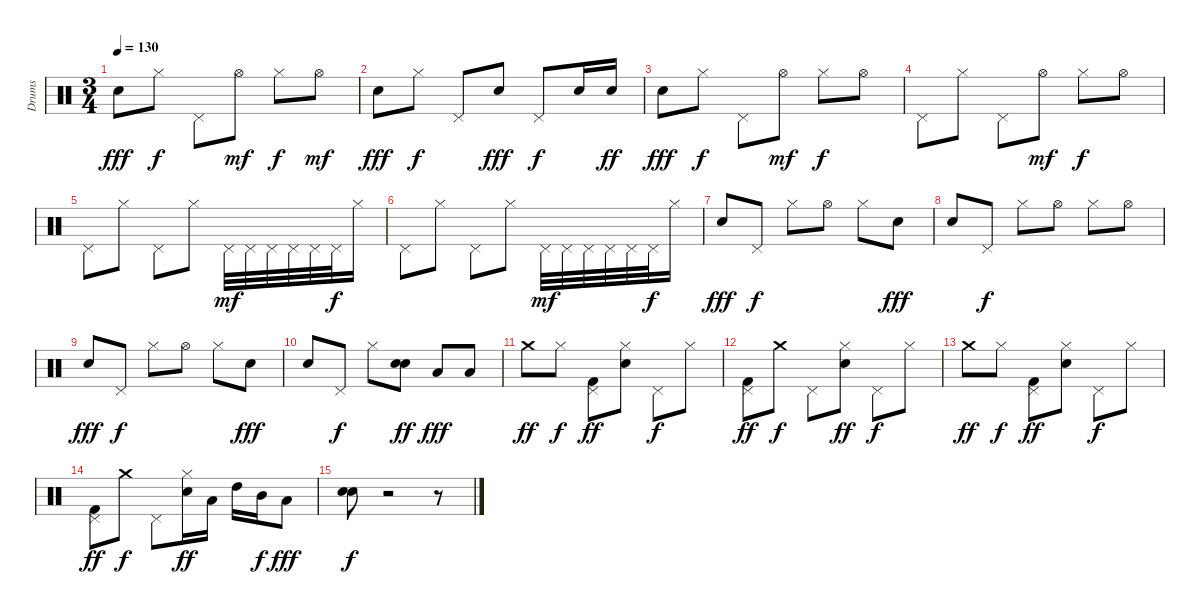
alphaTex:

\track ("Drums" "Drums") {instrument percussion}
\staff {score}
\articulation defaults
\ts (3 4)
\tempo 130
\clef neutral
\ks c "Electric Snare (hit)".8{dy fff} "Hi-Hat (closed)".8{dy f} "Pedal Hi-Hat (hit)".8 "Hi-Hat (open)".8{dy mf} "Hi-Hat (closed)".8{dy f} "Hi-Hat (open)".8{dy mf}
|
"Electric Snare (hit)".8{dy fff} "Hi-Hat (closed)".8{dy f} "Pedal Hi-Hat (hit)".8 "Electric Snare (hit)".8{dy fff} "Pedal Hi-Hat (hit)".8{dy f} "Electric Snare (hit)".16 "Electric Snare (hit)".16{dy ff} |
"Electric Snare (hit)".8{dy fff} "Hi-Hat (closed)".8{dy f} "Pedal Hi-Hat (hit)".8 "Hi-Hat (open)".8{dy mf} "Hi-Hat (closed)".8{dy f} "Hi-Hat (open)".8 |
"Pedal Hi-Hat (hit)".8 "Hi-Hat (closed)".8 "Pedal Hi-Hat (hit)".8 "Hi-Hat (open)".8{dy mf} "Hi-Hat (closed)".8{dy f} "Hi-Hat (open)".8 |
"Pedal Hi-Hat (hit)".8 "Hi-Hat (closed)".8 "Pedal Hi-Hat (hit)".8 "Hi-Hat (closed)".8 "Pedal Hi-Hat (hit)".32{dy mf} "Pedal Hi-Hat (hit)".32 "Pedal Hi-Hat (hit)".32 "Pedal Hi-Hat (hit)".32 "Pedal Hi-Hat (hit)".32 "Pedal Hi-Hat (hit)".32{dy f} "Hi-Hat (closed)".16 |
"Pedal Hi-Hat (hit)".8 "Hi-Hat (closed)".8 "Pedal Hi-Hat (hit)".8 "Hi-Hat (closed)".8 "Pedal Hi-Hat (hit)".32{dy mf} "Pedal Hi-Hat (hit)".32 "Pedal Hi-Hat (hit)".32 "Pedal Hi-Hat (hit)".32 "Pedal Hi-Hat (hit)".32 "Pedal Hi-Hat (hit)".32{dy f} "Hi-Hat (closed)".16 |
"Electric Snare (hit)".8{dy fff} "Pedal Hi-Hat (hit)".8{dy f} "Hi-Hat (closed)".8 "Hi-Hat (open)".8 "Hi-Hat (closed)".8 "Electric Snare (hit)".8{dy fff} |
"Electric Snare (hit)".8 "Pedal Hi-Hat (hit)".8{dy f} "Hi-Hat (closed)".8 "Hi-Hat (open)".8 "Hi-Hat (closed)".8 "Hi-Hat (open)".8 |
"Electric Snare (hit)".8{dy fff} "Pedal Hi-Hat (hit)".8{dy f} "Hi-Hat (closed)".8 "Hi-Hat (open)".8 "Hi-Hat (closed)".8 "Electric Snare (hit)".8{dy fff} |
"Electric Snare (hit)".8 "Pedal Hi-Hat (hit)".8{dy f} "Hi-Hat (closed)".8 ("Snare (hit) 2" "Electric Snare (hit)").8{dy ff} "Low Tom (hit)".8{dy fff} "Low Tom (hit)".8 |
"Crash medium (hit)".8{dy ff} "Hi-Hat (closed)".8{dy f} ("Kick (hit) 2" "Pedal Hi-Hat (hit)").8{dy ff} ("Electric Snare (hit)" "Hi-Hat (closed)").8 "Pedal Hi-Hat (hit)".8{dy f} "Hi-Hat (closed)".8 |
("Kick (hit) 2" "Pedal Hi-Hat (hit)").8{dy ff} "Crash medium (hit)".8{dy f} "Pedal Hi-Hat (hit)".8 ("Electric Snare (hit)" "Hi-Hat (closed)").8{dy ff} "Pedal Hi-Hat (hit)".8{dy f} "Hi-Hat (closed)".8 |
"Crash medium (hit)".8{dy ff} "Hi-Hat (closed)".8{dy f} ("Kick (hit) 2" "Pedal Hi-Hat (hit)").8{dy ff} ("Electric Snare (hit)" "Hi-Hat (closed)").8 "Pedal Hi-Hat (hit)".8{dy f} "Hi-Hat (closed)".8 |
("Kick (hit) 2" "Pedal Hi-Hat (hit)").8{dy ff} "Crash medium (hit)".8{dy f} "Pedal Hi-Hat (hit)".8 ("Electric Snare (hit)" "Hi-Hat (closed)").16{dy ff} "Low Tom (hit)".16 "High Tom (hit)".16 "Mid Tom (hit)".16{dy f} "Low Tom (hit)".8{dy fff} |
("Electric Snare (hit)" "Snare (hit) 2").8{dy f} r.2 r.8
